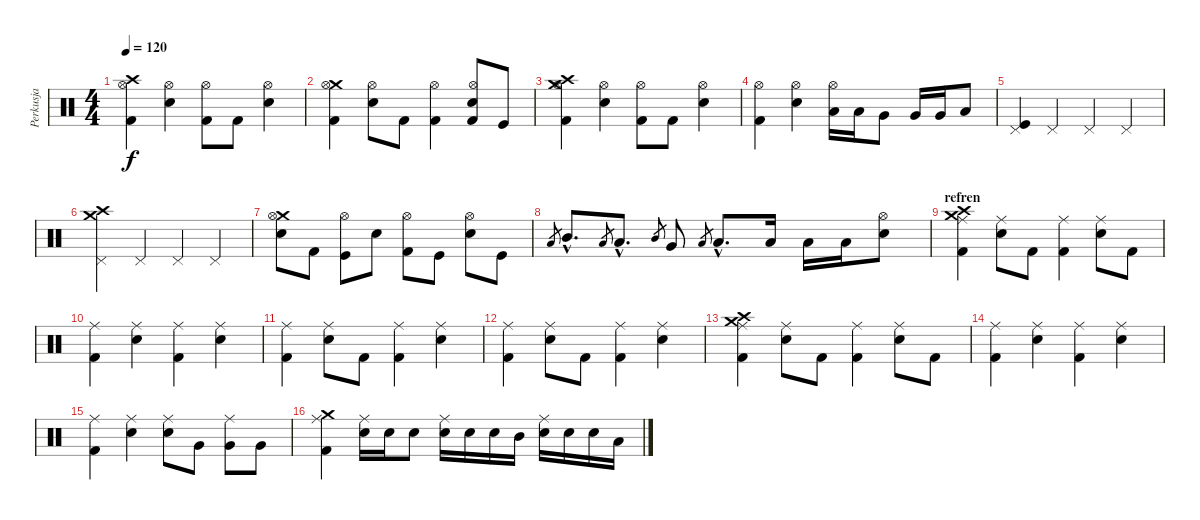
\track ("Perkusja" "Perkusja") {instrument percussion}
\staff {score}
\articulation defaults
\ts (4 4)
\tempo 120
\clef neutral
\ks c
("Crash high (hit)" "Kick (hit) 2" "Hi-Hat (open)").4{dy f} ("Snare (hit) 2" "Hi-Hat (open)").4 ("Kick (hit) 2" "Hi-Hat (open)").8 "Kick (hit) 2".8 ("Snare (hit) 2" "Hi-Hat (open)").4 |
("Crash medium (hit)" "Kick (hit) 2" "Hi-Hat (open)").4 ("Snare (hit) 2" "Hi-Hat (open)").8 "Kick (hit) 2".8 ("Kick (hit) 2" "Hi-Hat (open)").4 ("Snare (hit) 2" "Kick (hit) 2" "Hi-Hat (open)").8 "Kick (hit)".8 |
("Crash high (hit)" "Crash medium (hit)" "Kick (hit) 2" "Hi-Hat (open)").4 ("Snare (hit) 2" "Hi-Hat (open)").4 ("Kick (hit) 2" "Hi-Hat (open)").8 "Kick (hit) 2".8 ("Snare (hit) 2" "Hi-Hat (open)").4 |
("Kick (hit) 2" "Hi-Hat (open)").4 ("Snare (hit) 2" "Hi-Hat (open)").4 ("Low Tom (hit)" "Hi-Hat (open)").16 "Low Tom (hit)".16 "Very Low Tom (hit)".8 "Very Low Tom (hit)".16 "Very Low Tom (hit)".16 "Low Floor Tom (hit)".8 |
("Kick (hit)" "Pedal Hi-Hat (hit)").4 "Pedal Hi-Hat (hit)".4 "Pedal Hi-Hat (hit)".4 "Pedal Hi-Hat (hit)".4 |
("Crash high (hit)" "Crash medium (hit)" "Pedal Hi-Hat (hit)").4 "Pedal Hi-Hat (hit)".4 "Pedal Hi-Hat (hit)".4 "Pedal Hi-Hat (hit)".4 |
("Crash medium (hit)" "Snare (hit) 2" "Hi-Hat (open)").8 "Kick (hit) 2".8 ("Kick (hit)" "Hi-Hat (open)").8 "Snare (hit) 2".8 ("Kick (hit) 2" "Hi-Hat (open)").8 "Kick (hit)".8 ("Snare (hit) 2" "Hi-Hat (open)").8 "Kick (hit)".8 |
"Low Tom (hit)".8{gr} "Mid Tom (hit)"{hac}.8{d} "Low Tom (hit)".8{gr} "Low Tom (hit)"{hac}.8{d} "Mid Tom (hit)".8{gr} "Very Low Tom (hit)".8 "Low Floor Tom (hit)".8{gr} "Low Floor Tom (hit)"{hac}.8{d} "Low Floor Tom (hit)".16 "Low Floor Tom (hit)".16 "Low Floor Tom (hit)".16 ("Snare (hit) 2" "Hi-Hat (open)").8 |
\section ("" "refren")
("Crash high (hit)" "Crash medium (hit)" "Kick (hit) 2" "Ride (middle)").4 ("Snare (hit) 2" "Ride (middle)").8 "Kick (hit) 2".8 ("Kick (hit) 2" "Ride (middle)").4 ("Snare (hit) 2" "Ride (middle)").8 "Kick (hit) 2".8 |
("Kick (hit) 2" "Ride (middle)").4 ("Snare (hit) 2" "Ride (middle)").4 ("Kick (hit) 2" "Ride (middle)").4 ("Snare (hit) 2" "Ride (middle)").4 |
("Kick (hit) 2" "Ride (middle)").4 ("Snare (hit) 2" "Ride (middle)").8 "Kick (hit) 2".8 ("Kick (hit) 2" "Ride (middle)").4 ("Snare (hit) 2" "Ride (middle)").4 |
("Kick (hit) 2" "Ride (middle)").4 ("Snare (hit) 2" "Ride (middle)").8 "Kick (hit) 2".8 ("Kick (hit) 2" "Ride (middle)").4 ("Snare (hit) 2" "Ride (middle)").4 |
("Crash high (hit)" "Crash medium (hit)" "Kick (hit) 2" "Ride (middle)").4 ("Snare (hit) 2" "Ride (middle)").8 "Kick (hit) 2".8 ("Kick (hit) 2" "Ride (middle)").4 ("Snare (hit) 2" "Ride (middle)").8 "Kick (hit) 2".8 |
("Kick (hit) 2" "Ride (middle)").4 ("Snare (hit) 2" "Ride (middle)").4 ("Kick (hit) 2" "Ride (middle)").4 ("Snare (hit) 2" "Ride (middle)").4 |
("Kick (hit) 2" "Ride (middle)").4 ("Snare (hit) 2" "Ride (middle)").4 ("Electric Snare (hit)" "Ride (middle)").8 "Very Low Tom (hit)".8 ("Very Low Tom (hit)" "Ride (middle)").8 "Very Low Tom (hit)".8 |
("Crash medium (hit)" "Kick (hit) 2" "Ride (middle)").4 ("Snare (hit) 2" "Ride (middle)").16 "Snare (hit) 2".16 "Electric Snare (hit)".8 ("Snare (hit) 2" "Ride (middle)").16 "Electric Snare (hit)".16 "Electric Snare (hit)".16 "Mid Tom (hit)".16 ("Electric Snare (hit)" "Ride (middle)").16 "Snare (hit) 2".16 "Snare (hit) 2".16 "Low Tom (hit)".16
